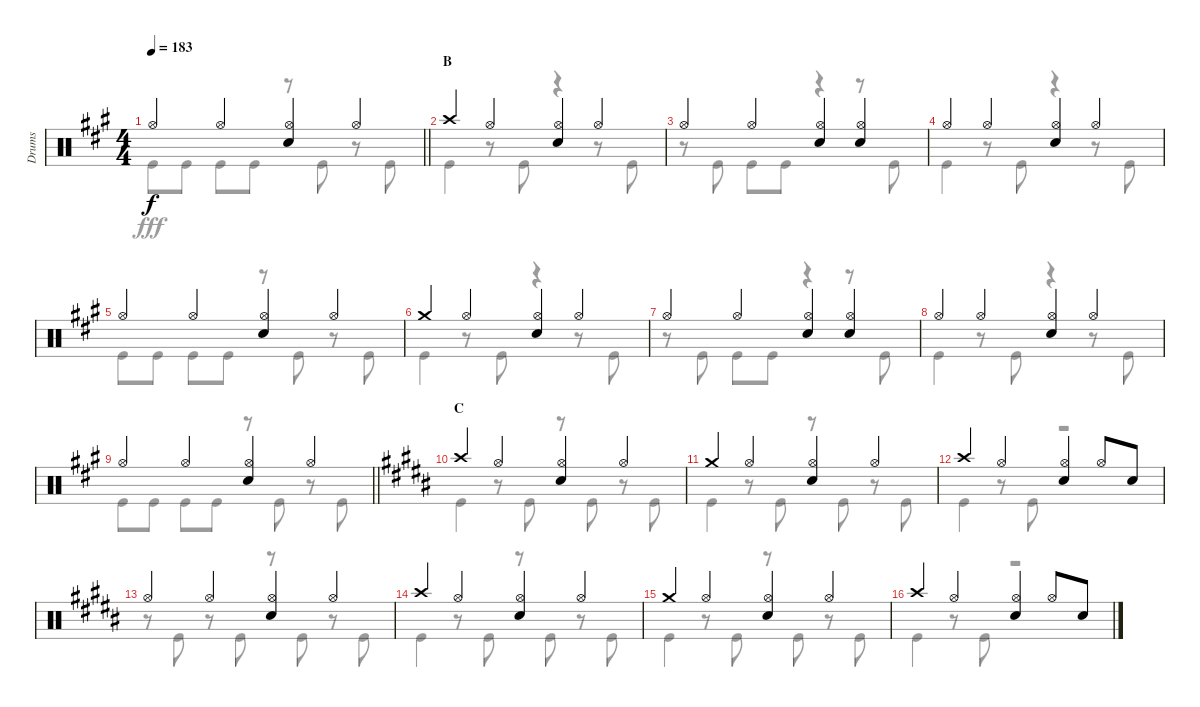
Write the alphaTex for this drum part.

\track ("Drums" "Drums") {instrument percussion}
\staff {score}
\articulation defaults
\voice
\ts (4 4)
\tempo 183
\clef neutral
\barLineRight lightlight
\ks a "Hi-Hat (open)".4{dy f} "Hi-Hat (open)".4
("Hi-Hat (open)" "Snare (hit) 2").4 "Hi-Hat (open)".4 |
\section ("" "B")
"Crash high (hit)".4 "Hi-Hat (open)".4 ("Hi-Hat (open)" "Snare (hit) 2").4 "Hi-Hat (open)".4 |
"Hi-Hat (open)".4 "Hi-Hat (open)".4 ("Hi-Hat (open)" "Snare (hit) 2").4 ("Hi-Hat (open)" "Snare (hit) 2").4 |
"Hi-Hat (open)".4 "Hi-Hat (open)".4 ("Hi-Hat (open)" "Snare (hit) 2").4 "Hi-Hat (open)".4 |
"Hi-Hat (open)".4 "Hi-Hat (open)".4 ("Hi-Hat (open)" "Snare (hit) 2").4 "Hi-Hat (open)".4 |
"Crash medium (hit)".4 "Hi-Hat (open)".4 ("Hi-Hat (open)" "Snare (hit) 2").4 "Hi-Hat (open)".4 |
"Hi-Hat (open)".4 "Hi-Hat (open)".4 ("Hi-Hat (open)" "Snare (hit) 2").4 ("Hi-Hat (open)" "Snare (hit) 2").4 |
"Hi-Hat (open)".4 "Hi-Hat (open)".4 ("Hi-Hat (open)" "Snare (hit) 2").4 "Hi-Hat (open)".4 |
\barLineRight lightlight "Hi-Hat (open)".4 "Hi-Hat (open)".4
("Hi-Hat (open)" "Snare (hit) 2").4 "Hi-Hat (open)".4 |
\section ("" "C")
\ks b "Crash high (hit)".4 "Hi-Hat (open)".4
("Hi-Hat (open)" "Snare (hit) 2").4 "Hi-Hat (open)".4 |
"Crash medium (hit)".4 "Hi-Hat (open)".4 ("Hi-Hat (open)" "Snare (hit) 2").4 "Hi-Hat (open)".4 |
"Crash high (hit)".4 "Hi-Hat (open)".4 ("Hi-Hat (open)" "Snare (hit) 2").4 "Hi-Hat (open)".8 "Snare (hit) 2".8 |
"Hi-Hat (open)".4 "Hi-Hat (open)".4 ("Hi-Hat (open)" "Snare (hit) 2").4 "Hi-Hat (open)".4 |
"Crash high (hit)".4 "Hi-Hat (open)".4 ("Hi-Hat (open)" "Snare (hit) 2").4 "Hi-Hat (open)".4 |
"Crash medium (hit)".4 "Hi-Hat (open)".4 ("Hi-Hat (open)" "Snare (hit) 2").4 "Hi-Hat (open)".4 |
"Crash high (hit)".4 "Hi-Hat (open)".4 ("Hi-Hat (open)" "Snare (hit) 2").4 "Hi-Hat (open)".8 "Snare (hit) 2".8
\voice
\clef neutral
\ottava regular
\simile none
\barLineRight lightlight
\ks a "Kick (hit)".8{dy fff} "Kick (hit)".8 "Kick (hit)".8 "Kick (hit)".8
r.8 "Kick (hit)".8 r.8 "Kick (hit)".8 |
"Kick (hit)".4 r.8 "Kick (hit)".8 r.4 r.8 "Kick (hit)".8 |
r.8 "Kick (hit)".8 "Kick (hit)".8 "Kick (hit)".8 r.4 r.8 "Kick (hit)".8 |
"Kick (hit)".4 r.8 "Kick (hit)".8 r.4 r.8 "Kick (hit)".8 |
"Kick (hit)".8 "Kick (hit)".8 "Kick (hit)".8 "Kick (hit)".8 r.8 "Kick (hit)".8 r.8 "Kick (hit)".8 |
"Kick (hit)".4 r.8 "Kick (hit)".8 r.4 r.8 "Kick (hit)".8 |
r.8 "Kick (hit)".8 "Kick (hit)".8 "Kick (hit)".8 r.4 r.8 "Kick (hit)".8 |
"Kick (hit)".4 r.8 "Kick (hit)".8 r.4 r.8 "Kick (hit)".8 |
\barLineRight lightlight "Kick (hit)".8 "Kick (hit)".8 "Kick (hit)".8 "Kick (hit)".8
r.8 "Kick (hit)".8 r.8 "Kick (hit)".8 |
\ks b "Kick (hit)".4
r.8 "Kick (hit)".8 r.8 "Kick (hit)".8 r.8 "Kick (hit)".8 |
"Kick (hit)".4 r.8 "Kick (hit)".8 r.8 "Kick (hit)".8 r.8 "Kick (hit)".8 |
"Kick (hit)".4 r.8 "Kick (hit)".8 r.2 |
r.8 "Kick (hit)".8 r.8 "Kick (hit)".8 r.8 "Kick (hit)".8 r.8 "Kick (hit)".8 |
"Kick (hit)".4 r.8 "Kick (hit)".8 r.8 "Kick (hit)".8 r.8 "Kick (hit)".8 |
"Kick (hit)".4 r.8 "Kick (hit)".8 r.8 "Kick (hit)".8 r.8 "Kick (hit)".8 |
"Kick (hit)".4 r.8 "Kick (hit)".8 r.2
